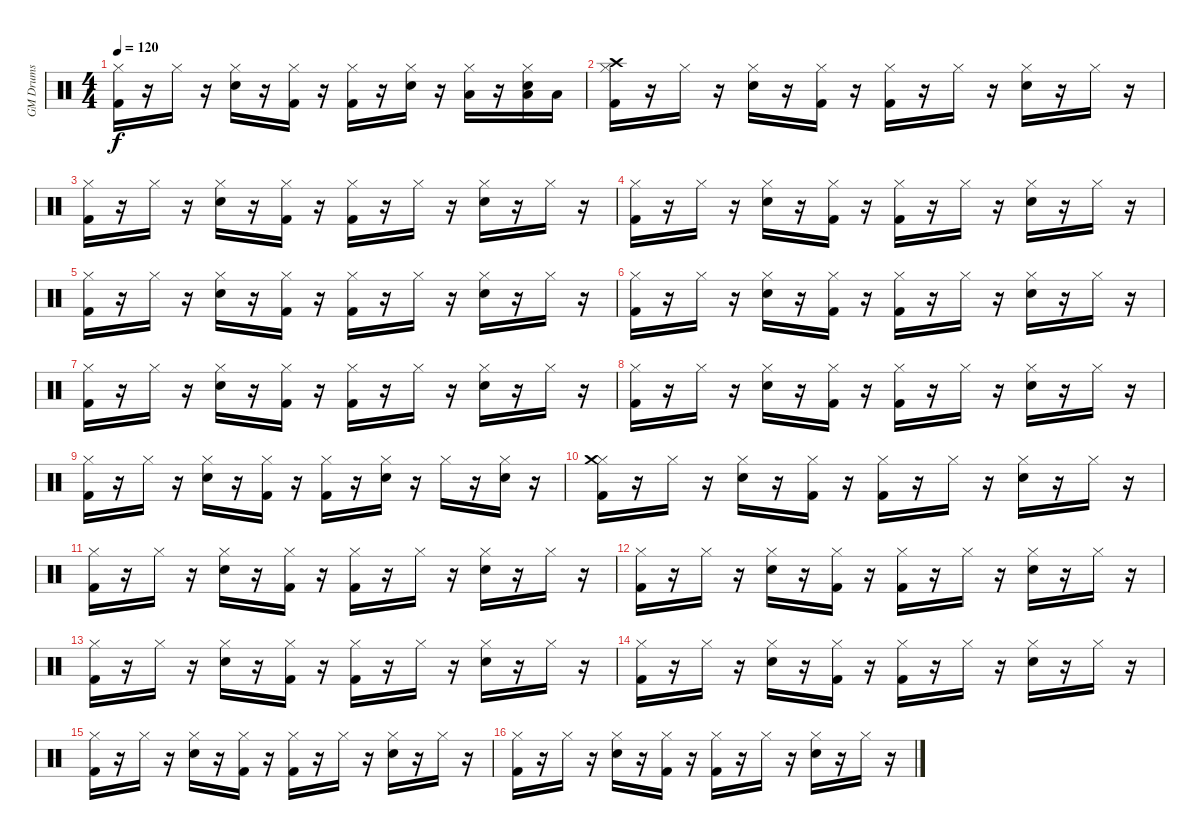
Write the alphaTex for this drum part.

\track ("GM Drums" "GM Drums") {instrument percussion}
\staff {score}
\articulation defaults
\ts (4 4)
\tempo 120
\clef neutral
\ks c
("Kick (hit) 2" "Hi-Hat (closed)").16{dy f} r.16 "Hi-Hat (closed)".16 r.16 ("Snare (hit) 2" "Hi-Hat (closed)").16 r.16 ("Kick (hit) 2" "Hi-Hat (closed)").16 r.16 ("Kick (hit) 2" "Hi-Hat (closed)").16 r.16 ("Snare (hit) 2" "Hi-Hat (closed)").16 r.16 ("Low Floor Tom (hit)" "Hi-Hat (closed)").16 r.16 ("Snare (hit) 2" "Hi-Hat (closed)" "Low Tom (hit)").16 "Low Tom (hit)".16 |
("Kick (hit) 2" "Hi-Hat (closed)" "Crash high (hit)").16 r.16 "Hi-Hat (closed)".16 r.16 ("Snare (hit) 2" "Hi-Hat (closed)").16 r.16 ("Kick (hit) 2" "Hi-Hat (closed)").16 r.16 ("Kick (hit) 2" "Hi-Hat (closed)").16 r.16 "Hi-Hat (closed)".16 r.16 ("Snare (hit) 2" "Hi-Hat (closed)").16 r.16 "Hi-Hat (closed)".16 r.16 |
("Kick (hit) 2" "Hi-Hat (closed)").16 r.16 "Hi-Hat (closed)".16 r.16 ("Snare (hit) 2" "Hi-Hat (closed)").16 r.16 ("Kick (hit) 2" "Hi-Hat (closed)").16 r.16 ("Kick (hit) 2" "Hi-Hat (closed)").16 r.16 "Hi-Hat (closed)".16 r.16 ("Snare (hit) 2" "Hi-Hat (closed)").16 r.16 "Hi-Hat (closed)".16 r.16 |
("Kick (hit) 2" "Hi-Hat (closed)").16 r.16 "Hi-Hat (closed)".16 r.16 ("Snare (hit) 2" "Hi-Hat (closed)").16 r.16 ("Kick (hit) 2" "Hi-Hat (closed)").16 r.16 ("Kick (hit) 2" "Hi-Hat (closed)").16 r.16 "Hi-Hat (closed)".16 r.16 ("Snare (hit) 2" "Hi-Hat (closed)").16 r.16 "Hi-Hat (closed)".16 r.16 |
("Kick (hit) 2" "Hi-Hat (closed)").16 r.16 "Hi-Hat (closed)".16 r.16 ("Snare (hit) 2" "Hi-Hat (closed)").16 r.16 ("Kick (hit) 2" "Hi-Hat (closed)").16 r.16 ("Kick (hit) 2" "Hi-Hat (closed)").16 r.16 "Hi-Hat (closed)".16 r.16 ("Snare (hit) 2" "Hi-Hat (closed)").16 r.16 "Hi-Hat (closed)".16 r.16 |
("Kick (hit) 2" "Hi-Hat (closed)").16 r.16 "Hi-Hat (closed)".16 r.16 ("Snare (hit) 2" "Hi-Hat (closed)").16 r.16 ("Kick (hit) 2" "Hi-Hat (closed)").16 r.16 ("Kick (hit) 2" "Hi-Hat (closed)").16 r.16 "Hi-Hat (closed)".16 r.16 ("Snare (hit) 2" "Hi-Hat (closed)").16 r.16 "Hi-Hat (closed)".16 r.16 |
("Kick (hit) 2" "Hi-Hat (closed)").16 r.16 "Hi-Hat (closed)".16 r.16 ("Snare (hit) 2" "Hi-Hat (closed)").16 r.16 ("Kick (hit) 2" "Hi-Hat (closed)").16 r.16 ("Kick (hit) 2" "Hi-Hat (closed)").16 r.16 "Hi-Hat (closed)".16 r.16 ("Snare (hit) 2" "Hi-Hat (closed)").16 r.16 "Hi-Hat (closed)".16 r.16 |
("Kick (hit) 2" "Hi-Hat (closed)").16 r.16 "Hi-Hat (closed)".16 r.16 ("Snare (hit) 2" "Hi-Hat (closed)").16 r.16 ("Kick (hit) 2" "Hi-Hat (closed)").16 r.16 ("Kick (hit) 2" "Hi-Hat (closed)").16 r.16 "Hi-Hat (closed)".16 r.16 ("Snare (hit) 2" "Hi-Hat (closed)").16 r.16 "Hi-Hat (closed)".16 r.16 |
("Kick (hit) 2" "Hi-Hat (closed)").16 r.16 "Hi-Hat (closed)".16 r.16 ("Snare (hit) 2" "Hi-Hat (closed)").16 r.16 ("Kick (hit) 2" "Hi-Hat (closed)").16 r.16 ("Kick (hit) 2" "Hi-Hat (closed)").16 r.16 ("Snare (hit) 2" "Hi-Hat (closed)").16 r.16 "Hi-Hat (closed)".16 r.16 ("Snare (hit) 2" "Hi-Hat (closed)").16 r.16 |
("Kick (hit) 2" "Hi-Hat (closed)" "Crash medium (hit)").16 r.16 "Hi-Hat (closed)".16 r.16 ("Snare (hit) 2" "Hi-Hat (closed)").16 r.16 ("Kick (hit) 2" "Hi-Hat (closed)").16 r.16 ("Kick (hit) 2" "Hi-Hat (closed)").16 r.16 "Hi-Hat (closed)".16 r.16 ("Snare (hit) 2" "Hi-Hat (closed)").16 r.16 "Hi-Hat (closed)".16 r.16 |
("Kick (hit) 2" "Hi-Hat (closed)").16 r.16 "Hi-Hat (closed)".16 r.16 ("Snare (hit) 2" "Hi-Hat (closed)").16 r.16 ("Kick (hit) 2" "Hi-Hat (closed)").16 r.16 ("Kick (hit) 2" "Hi-Hat (closed)").16 r.16 "Hi-Hat (closed)".16 r.16 ("Snare (hit) 2" "Hi-Hat (closed)").16 r.16 "Hi-Hat (closed)".16 r.16 |
("Kick (hit) 2" "Hi-Hat (closed)").16 r.16 "Hi-Hat (closed)".16 r.16 ("Snare (hit) 2" "Hi-Hat (closed)").16 r.16 ("Kick (hit) 2" "Hi-Hat (closed)").16 r.16 ("Kick (hit) 2" "Hi-Hat (closed)").16 r.16 "Hi-Hat (closed)".16 r.16 ("Snare (hit) 2" "Hi-Hat (closed)").16 r.16 "Hi-Hat (closed)".16 r.16 |
("Kick (hit) 2" "Hi-Hat (closed)").16 r.16 "Hi-Hat (closed)".16 r.16 ("Snare (hit) 2" "Hi-Hat (closed)").16 r.16 ("Kick (hit) 2" "Hi-Hat (closed)").16 r.16 ("Kick (hit) 2" "Hi-Hat (closed)").16 r.16 "Hi-Hat (closed)".16 r.16 ("Snare (hit) 2" "Hi-Hat (closed)").16 r.16 "Hi-Hat (closed)".16 r.16 |
("Kick (hit) 2" "Hi-Hat (closed)").16 r.16 "Hi-Hat (closed)".16 r.16 ("Snare (hit) 2" "Hi-Hat (closed)").16 r.16 ("Kick (hit) 2" "Hi-Hat (closed)").16 r.16 ("Kick (hit) 2" "Hi-Hat (closed)").16 r.16 "Hi-Hat (closed)".16 r.16 ("Snare (hit) 2" "Hi-Hat (closed)").16 r.16 "Hi-Hat (closed)".16 r.16 |
("Kick (hit) 2" "Hi-Hat (closed)").16 r.16 "Hi-Hat (closed)".16 r.16 ("Snare (hit) 2" "Hi-Hat (closed)").16 r.16 ("Kick (hit) 2" "Hi-Hat (closed)").16 r.16 ("Kick (hit) 2" "Hi-Hat (closed)").16 r.16 "Hi-Hat (closed)".16 r.16 ("Snare (hit) 2" "Hi-Hat (closed)").16 r.16 "Hi-Hat (closed)".16 r.16 |
("Kick (hit) 2" "Hi-Hat (closed)").16 r.16 "Hi-Hat (closed)".16 r.16 ("Snare (hit) 2" "Hi-Hat (closed)").16 r.16 ("Kick (hit) 2" "Hi-Hat (closed)").16 r.16 ("Kick (hit) 2" "Hi-Hat (closed)").16 r.16 "Hi-Hat (closed)".16 r.16 ("Snare (hit) 2" "Hi-Hat (closed)").16 r.16 "Hi-Hat (closed)".16 r.16
